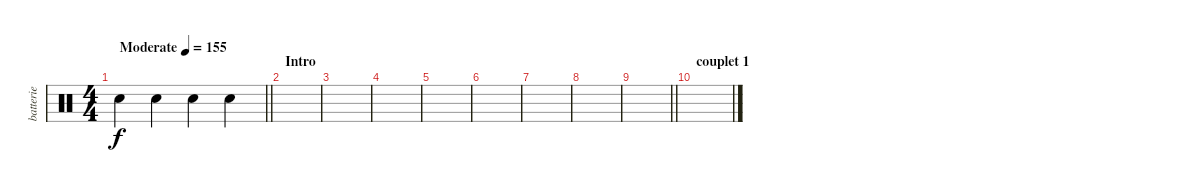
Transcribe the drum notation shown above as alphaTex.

\track ("batterie" "batterie") {instrument percussion}
\staff {score}
\articulation defaults
\ts (4 4)
\tempo (155 "Moderate")
\clef neutral
\barLineRight lightlight
\ks c "Snare (hit) 2".4{dy f} "Snare (hit) 2".4 "Snare (hit) 2".4 "Snare (hit) 2".4
|
\section ("" "Intro")
|
|
|
|
|
|
|
\barLineRight lightlight
|
\section ("" "couplet 1")
